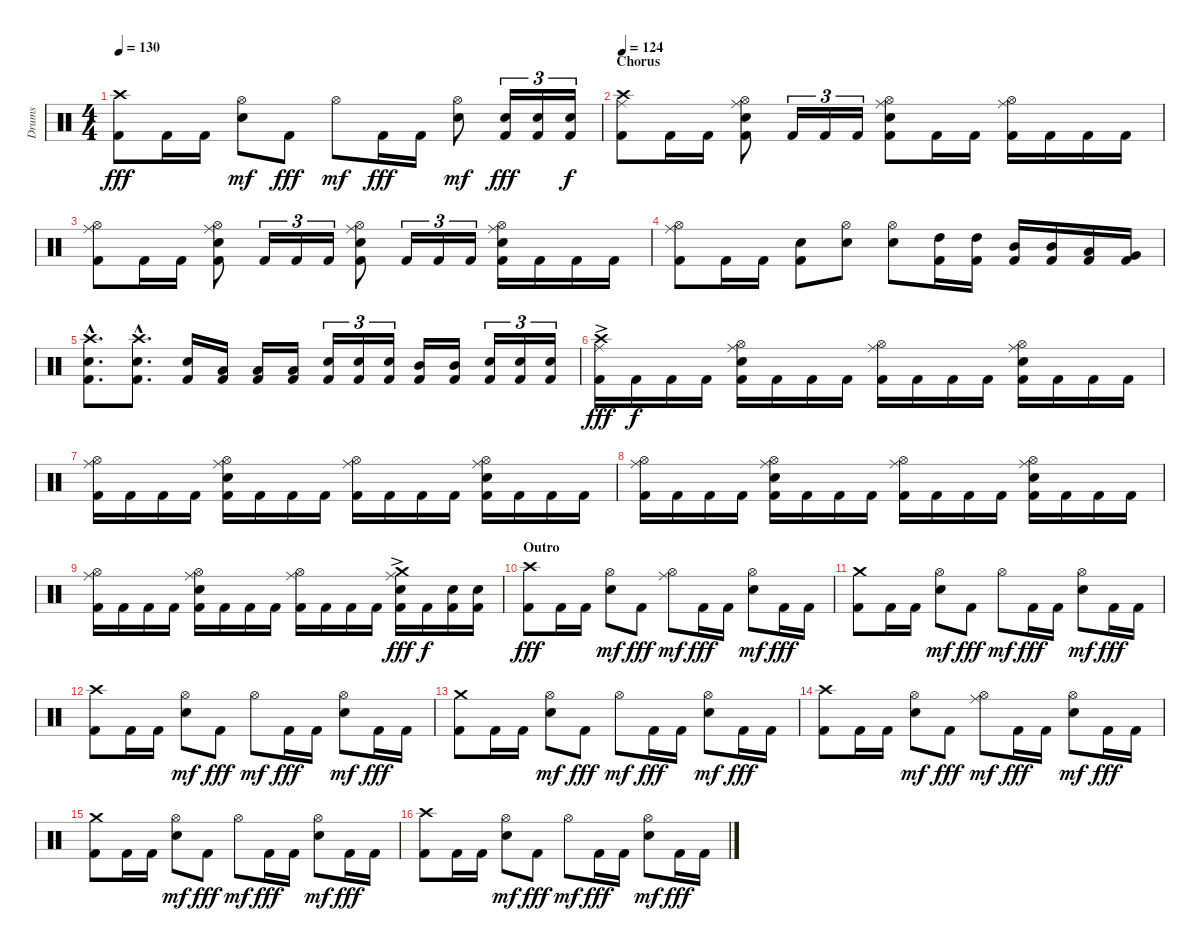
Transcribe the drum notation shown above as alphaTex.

\track ("Drums" "Drums") {instrument percussion}
\staff {score}
\articulation defaults
\ts (4 4)
\tempo 130
\clef neutral
\ks c
("Crash high (hit)" "Kick (hit) 2").8{dy fff} "Kick (hit) 2".16 "Kick (hit) 2".16 ("Electric Snare (hit)" "Hi-Hat (open)").8{dy mf} "Kick (hit) 2".8{dy fff} "Hi-Hat (open)".8{dy mf} "Kick (hit) 2".16{dy fff} "Kick (hit) 2".16 ("Electric Snare (hit)" "Hi-Hat (open)").8{dy mf} ("Kick (hit) 2" "Snare (hit) 2").16{tu (3 2) dy fff} ("Kick (hit) 2" "Snare (hit) 2").16{tu (3 2)} ("Kick (hit) 2" "Snare (hit) 2").16{tu (3 2) dy f} |
\section ("" "Chorus")
\tempo 124
("Crash high (hit)" "Ride (middle)" "Kick (hit) 2").8 "Kick (hit) 2".16 "Kick (hit) 2".16 ("Hi-Hat (open)" "Ride (middle)" "Electric Snare (hit)" "Kick (hit) 2").8 "Kick (hit) 2".16{tu (3 2)} "Kick (hit) 2".16{tu (3 2)} "Kick (hit) 2".16{tu (3 2)} ("Hi-Hat (open)" "Ride (middle)" "Electric Snare (hit)" "Kick (hit) 2").8 "Kick (hit) 2".16 "Kick (hit) 2".16 ("Hi-Hat (open)" "Ride (middle)" "Kick (hit) 2").16 "Kick (hit) 2".16 "Kick (hit) 2".16 "Kick (hit) 2".16 |
("Hi-Hat (open)" "Ride (middle)" "Kick (hit) 2").8 "Kick (hit) 2".16 "Kick (hit) 2".16 ("Hi-Hat (open)" "Ride (middle)" "Electric Snare (hit)" "Kick (hit) 2").8 "Kick (hit) 2".16{tu (3 2)} "Kick (hit) 2".16{tu (3 2)} "Kick (hit) 2".16{tu (3 2)} ("Hi-Hat (open)" "Ride (middle)" "Electric Snare (hit)" "Kick (hit) 2").8 "Kick (hit) 2".16{tu (3 2)} "Kick (hit) 2".16{tu (3 2)} "Kick (hit) 2".16{tu (3 2)} ("Hi-Hat (open)" "Ride (middle)" "Electric Snare (hit)" "Kick (hit) 2").16 "Kick (hit) 2".16 "Kick (hit) 2".16 "Kick (hit) 2".16 |
("Hi-Hat (open)" "Ride (middle)" "Kick (hit) 2").8 "Kick (hit) 2".16 "Kick (hit) 2".16 ("Electric Snare (hit)" "Kick (hit) 2").8 ("Hi-Hat (open)" "Electric Snare (hit)").8 ("Hi-Hat (open)" "Electric Snare (hit)").8 ("High Tom (hit)" "Kick (hit) 2").16 ("High Tom (hit)" "Kick (hit) 2").16 ("Mid Tom (hit)" "Kick (hit) 2").16 ("Mid Tom (hit)" "Kick (hit) 2").16 ("Low Tom (hit)" "Kick (hit) 2").16 ("Very Low Tom (hit)" "Kick (hit) 2").16 |
("Crash high (hit)"{hac} "Snare (hit) 2"{hac} "Kick (hit) 2"{hac}).8{d} ("Crash high (hit)"{hac} "Snare (hit) 2"{hac} "Kick (hit) 2"{hac}).8{d} ("Snare (hit) 2" "Kick (hit) 2").16 ("Low Tom (hit)" "Kick (hit) 2").16 ("Low Tom (hit)" "Kick (hit) 2").16 ("Low Tom (hit)" "Kick (hit) 2").16 ("Snare (hit) 2" "Kick (hit) 2").16{tu (3 2)} ("Snare (hit) 2" "Kick (hit) 2").16{tu (3 2)} ("Snare (hit) 2" "Kick (hit) 2").16{tu (3 2)} ("Mid Tom (hit)" "Kick (hit) 2").16 ("Mid Tom (hit)" "Kick (hit) 2").16 ("Snare (hit) 2" "Kick (hit) 2").16{tu (3 2)} ("Snare (hit) 2" "Kick (hit) 2").16{tu (3 2)} ("Snare (hit) 2" "Kick (hit) 2").16{tu (3 2)} |
("Crash high (hit)"{ac} "Ride (middle)" "Kick (hit) 2").16{dy fff} "Kick (hit) 2".16{dy f} "Kick (hit) 2".16 "Kick (hit) 2".16 ("Hi-Hat (open)" "Ride (middle)" "Snare (hit) 2" "Kick (hit) 2").16 "Kick (hit) 2".16 "Kick (hit) 2".16 "Kick (hit) 2".16 ("Hi-Hat (open)" "Ride (middle)" "Kick (hit) 2").16 "Kick (hit) 2".16 "Kick (hit) 2".16 "Kick (hit) 2".16 ("Hi-Hat (open)" "Ride (middle)" "Snare (hit) 2" "Kick (hit) 2").16 "Kick (hit) 2".16 "Kick (hit) 2".16 "Kick (hit) 2".16 |
("Hi-Hat (open)" "Ride (middle)" "Kick (hit) 2").16 "Kick (hit) 2".16 "Kick (hit) 2".16 "Kick (hit) 2".16 ("Hi-Hat (open)" "Ride (middle)" "Snare (hit) 2" "Kick (hit) 2").16 "Kick (hit) 2".16 "Kick (hit) 2".16 "Kick (hit) 2".16 ("Hi-Hat (open)" "Ride (middle)" "Kick (hit) 2").16 "Kick (hit) 2".16 "Kick (hit) 2".16 "Kick (hit) 2".16 ("Hi-Hat (open)" "Ride (middle)" "Snare (hit) 2" "Kick (hit) 2").16 "Kick (hit) 2".16 "Kick (hit) 2".16 "Kick (hit) 2".16 |
("Hi-Hat (open)" "Ride (middle)" "Kick (hit) 2").16 "Kick (hit) 2".16 "Kick (hit) 2".16 "Kick (hit) 2".16 ("Hi-Hat (open)" "Ride (middle)" "Snare (hit) 2" "Kick (hit) 2").16 "Kick (hit) 2".16 "Kick (hit) 2".16 "Kick (hit) 2".16 ("Hi-Hat (open)" "Ride (middle)" "Kick (hit) 2").16 "Kick (hit) 2".16 "Kick (hit) 2".16 "Kick (hit) 2".16 ("Hi-Hat (open)" "Ride (middle)" "Snare (hit) 2" "Kick (hit) 2").16 "Kick (hit) 2".16 "Kick (hit) 2".16 "Kick (hit) 2".16 |
("Hi-Hat (open)" "Ride (middle)" "Kick (hit) 2").16 "Kick (hit) 2".16 "Kick (hit) 2".16 "Kick (hit) 2".16 ("Hi-Hat (open)" "Ride (middle)" "Snare (hit) 2" "Kick (hit) 2").16 "Kick (hit) 2".16 "Kick (hit) 2".16 "Kick (hit) 2".16 ("Hi-Hat (open)" "Ride (middle)" "Kick (hit) 2").16 "Kick (hit) 2".16 "Kick (hit) 2".16 "Kick (hit) 2".16 ("Crash medium (hit)"{ac} "Ride (middle)" "Snare (hit) 2" "Kick (hit) 2").16{dy fff} "Kick (hit) 2".16{dy f} ("Snare (hit) 2" "Kick (hit) 2").16 ("Snare (hit) 2" "Kick (hit) 2").16 |
\section ("" "Outro")
("Crash high (hit)" "Kick (hit) 2").8{dy fff} "Kick (hit) 2".16 "Kick (hit) 2".16 ("Electric Snare (hit)" "Hi-Hat (open)").8{dy mf} "Kick (hit) 2".8{dy fff} ("Hi-Hat (open)" "Ride (middle)").8{dy mf} "Kick (hit) 2".16{dy fff} "Kick (hit) 2".16 ("Electric Snare (hit)" "Hi-Hat (open)").8{dy mf} "Kick (hit) 2".16{dy fff} "Kick (hit) 2".16 |
("Crash medium (hit)" "Kick (hit) 2").8 "Kick (hit) 2".16 "Kick (hit) 2".16 ("Electric Snare (hit)" "Hi-Hat (open)").8{dy mf} "Kick (hit) 2".8{dy fff} "Hi-Hat (open)".8{dy mf} "Kick (hit) 2".16{dy fff} "Kick (hit) 2".16 ("Electric Snare (hit)" "Hi-Hat (open)").8{dy mf} "Kick (hit) 2".16{dy fff} "Kick (hit) 2".16 |
("Crash high (hit)" "Kick (hit) 2").8 "Kick (hit) 2".16 "Kick (hit) 2".16 ("Electric Snare (hit)" "Hi-Hat (open)").8{dy mf} "Kick (hit) 2".8{dy fff} "Hi-Hat (open)".8{dy mf} "Kick (hit) 2".16{dy fff} "Kick (hit) 2".16 ("Electric Snare (hit)" "Hi-Hat (open)").8{dy mf} "Kick (hit) 2".16{dy fff} "Kick (hit) 2".16 |
("Crash medium (hit)" "Kick (hit) 2").8 "Kick (hit) 2".16 "Kick (hit) 2".16 ("Electric Snare (hit)" "Hi-Hat (open)").8{dy mf} "Kick (hit) 2".8{dy fff} "Hi-Hat (open)".8{dy mf} "Kick (hit) 2".16{dy fff} "Kick (hit) 2".16 ("Electric Snare (hit)" "Hi-Hat (open)").8{dy mf} "Kick (hit) 2".16{dy fff} "Kick (hit) 2".16 |
("Crash high (hit)" "Kick (hit) 2").8 "Kick (hit) 2".16 "Kick (hit) 2".16 ("Electric Snare (hit)" "Hi-Hat (open)").8{dy mf} "Kick (hit) 2".8{dy fff} ("Hi-Hat (open)" "Ride (middle)").8{dy mf} "Kick (hit) 2".16{dy fff} "Kick (hit) 2".16 ("Electric Snare (hit)" "Hi-Hat (open)").8{dy mf} "Kick (hit) 2".16{dy fff} "Kick (hit) 2".16 |
("Crash medium (hit)" "Kick (hit) 2").8 "Kick (hit) 2".16 "Kick (hit) 2".16 ("Electric Snare (hit)" "Hi-Hat (open)").8{dy mf} "Kick (hit) 2".8{dy fff} "Hi-Hat (open)".8{dy mf} "Kick (hit) 2".16{dy fff} "Kick (hit) 2".16 ("Electric Snare (hit)" "Hi-Hat (open)").8{dy mf} "Kick (hit) 2".16{dy fff} "Kick (hit) 2".16 |
("Crash high (hit)" "Kick (hit) 2").8 "Kick (hit) 2".16 "Kick (hit) 2".16 ("Electric Snare (hit)" "Hi-Hat (open)").8{dy mf} "Kick (hit) 2".8{dy fff} "Hi-Hat (open)".8{dy mf} "Kick (hit) 2".16{dy fff} "Kick (hit) 2".16 ("Electric Snare (hit)" "Hi-Hat (open)").8{dy mf} "Kick (hit) 2".16{dy fff} "Kick (hit) 2".16
